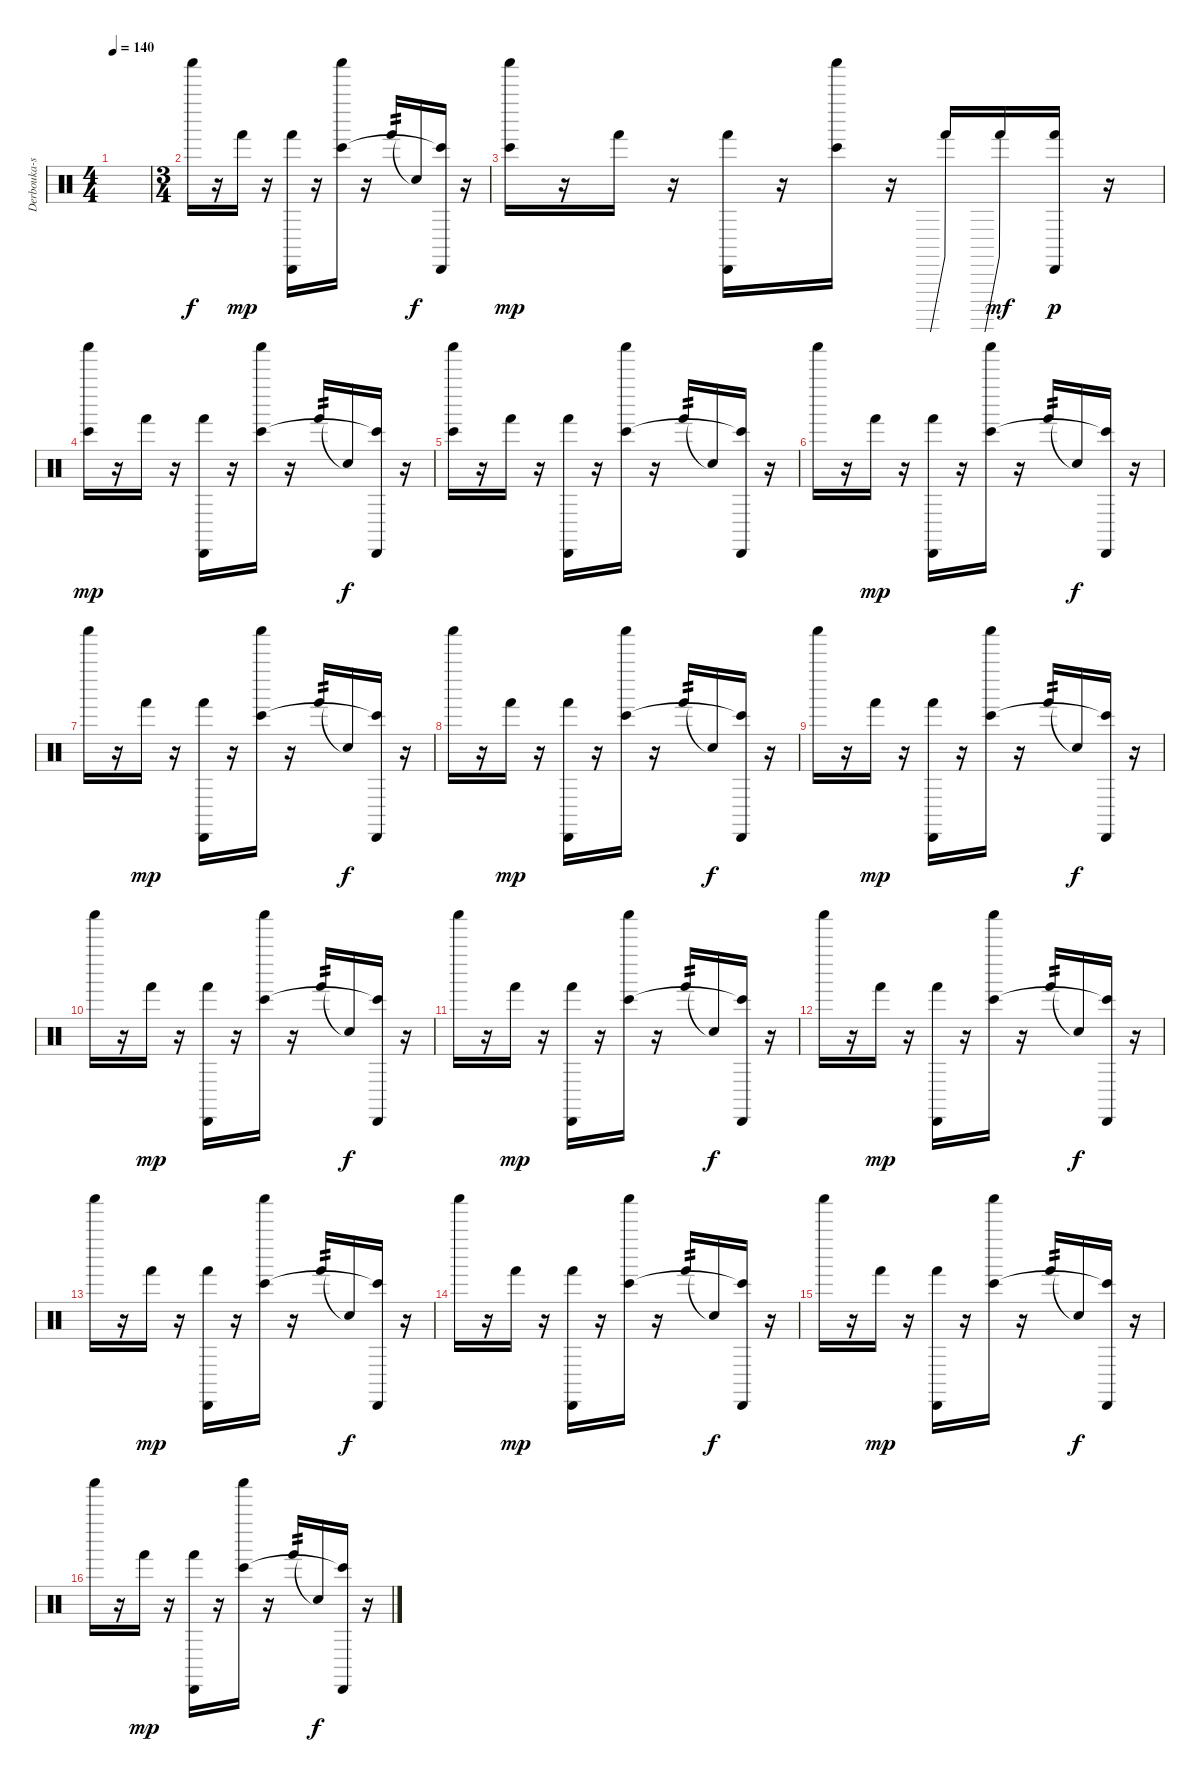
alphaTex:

\track ("Derbouka-shaker" "Derbouka-s") {instrument percussion}
\staff {score}
\articulation defaults
\ts (4 4)
\tempo 140
\clef neutral
\ks c
|
\ts (3 4)
"Shaker (hit)".16 r.16 "Hand (hit)".16{dy mp} r.16 ("Cabasa (hit)" "Hand (hit)").16 r.16 ("Shaker (hit)" "Bongo High (hit)").16 r.16 "Hand (hit)".16{tp 2} "Snare (hit)"{t}.16{dy f} ("Cabasa (hit)" "Bongo High (hit)"{t}).16 r.16 |
("Shaker (hit)" "Bongo High (hit)").16{dy mp} r.16 "Hand (hit)".16 r.16 ("Cabasa (hit)" "Hand (hit)").16 r.16 ("Shaker (hit)" "Bongo High (hit)").16 r.16 "Hand (hit)"{be (prebend 0 2 60 2)}.16 "Hand (hit)"{be (prebend 0 2 60 2)}.16{dy mf} ("Cabasa (hit)" "Hand (hit)").16{dy p} r.16 |
("Shaker (hit)" "Bongo High (hit)").16{dy mp} r.16 "Hand (hit)".16 r.16 ("Cabasa (hit)" "Hand (hit)").16 r.16 ("Shaker (hit)" "Bongo High (hit)").16 r.16 "Hand (hit)".16{tp 2} "Snare (hit)"{t}.16{dy f} ("Cabasa (hit)" "Bongo High (hit)"{t}).16 r.16 |
("Shaker (hit)" "Bongo High (hit)").16 r.16 "Hand (hit)".16 r.16 ("Cabasa (hit)" "Hand (hit)").16 r.16 ("Shaker (hit)" "Bongo High (hit)").16 r.16 "Hand (hit)".16{tp 2} "Snare (hit)"{t}.16 ("Cabasa (hit)" "Bongo High (hit)"{t}).16 r.16 |
"Shaker (hit)".16 r.16 "Hand (hit)".16{dy mp} r.16 ("Cabasa (hit)" "Hand (hit)").16 r.16 ("Shaker (hit)" "Bongo High (hit)").16 r.16 "Hand (hit)".16{tp 2} "Snare (hit)"{t}.16{dy f} ("Cabasa (hit)" "Bongo High (hit)"{t}).16 r.16 |
"Shaker (hit)".16 r.16 "Hand (hit)".16{dy mp} r.16 ("Cabasa (hit)" "Hand (hit)").16 r.16 ("Shaker (hit)" "Bongo High (hit)").16 r.16 "Hand (hit)".16{tp 2} "Snare (hit)"{t}.16{dy f} ("Cabasa (hit)" "Bongo High (hit)"{t}).16 r.16 |
"Shaker (hit)".16 r.16 "Hand (hit)".16{dy mp} r.16 ("Cabasa (hit)" "Hand (hit)").16 r.16 ("Shaker (hit)" "Bongo High (hit)").16 r.16 "Hand (hit)".16{tp 2} "Snare (hit)"{t}.16{dy f} ("Cabasa (hit)" "Bongo High (hit)"{t}).16 r.16 |
"Shaker (hit)".16 r.16 "Hand (hit)".16{dy mp} r.16 ("Cabasa (hit)" "Hand (hit)").16 r.16 ("Shaker (hit)" "Bongo High (hit)").16 r.16 "Hand (hit)".16{tp 2} "Snare (hit)"{t}.16{dy f} ("Cabasa (hit)" "Bongo High (hit)"{t}).16 r.16 |
"Shaker (hit)".16 r.16 "Hand (hit)".16{dy mp} r.16 ("Cabasa (hit)" "Hand (hit)").16 r.16 ("Shaker (hit)" "Bongo High (hit)").16 r.16 "Hand (hit)".16{tp 2} "Snare (hit)"{t}.16{dy f} ("Cabasa (hit)" "Bongo High (hit)"{t}).16 r.16 |
"Shaker (hit)".16 r.16 "Hand (hit)".16{dy mp} r.16 ("Cabasa (hit)" "Hand (hit)").16 r.16 ("Shaker (hit)" "Bongo High (hit)").16 r.16 "Hand (hit)".16{tp 2} "Snare (hit)"{t}.16{dy f} ("Cabasa (hit)" "Bongo High (hit)"{t}).16 r.16 |
"Shaker (hit)".16 r.16 "Hand (hit)".16{dy mp} r.16 ("Cabasa (hit)" "Hand (hit)").16 r.16 ("Shaker (hit)" "Bongo High (hit)").16 r.16 "Hand (hit)".16{tp 2} "Snare (hit)"{t}.16{dy f} ("Cabasa (hit)" "Bongo High (hit)"{t}).16 r.16 |
"Shaker (hit)".16 r.16 "Hand (hit)".16{dy mp} r.16 ("Cabasa (hit)" "Hand (hit)").16 r.16 ("Shaker (hit)" "Bongo High (hit)").16 r.16 "Hand (hit)".16{tp 2} "Snare (hit)"{t}.16{dy f} ("Cabasa (hit)" "Bongo High (hit)"{t}).16 r.16 |
"Shaker (hit)".16 r.16 "Hand (hit)".16{dy mp} r.16 ("Cabasa (hit)" "Hand (hit)").16 r.16 ("Shaker (hit)" "Bongo High (hit)").16 r.16 "Hand (hit)".16{tp 2} "Snare (hit)"{t}.16{dy f} ("Cabasa (hit)" "Bongo High (hit)"{t}).16 r.16 |
"Shaker (hit)".16 r.16 "Hand (hit)".16{dy mp} r.16 ("Cabasa (hit)" "Hand (hit)").16 r.16 ("Shaker (hit)" "Bongo High (hit)").16 r.16 "Hand (hit)".16{tp 2} "Snare (hit)"{t}.16{dy f} ("Cabasa (hit)" "Bongo High (hit)"{t}).16 r.16 |
"Shaker (hit)".16 r.16 "Hand (hit)".16{dy mp} r.16 ("Cabasa (hit)" "Hand (hit)").16 r.16 ("Shaker (hit)" "Bongo High (hit)").16 r.16 "Hand (hit)".16{tp 2} "Snare (hit)"{t}.16{dy f} ("Cabasa (hit)" "Bongo High (hit)"{t}).16 r.16
